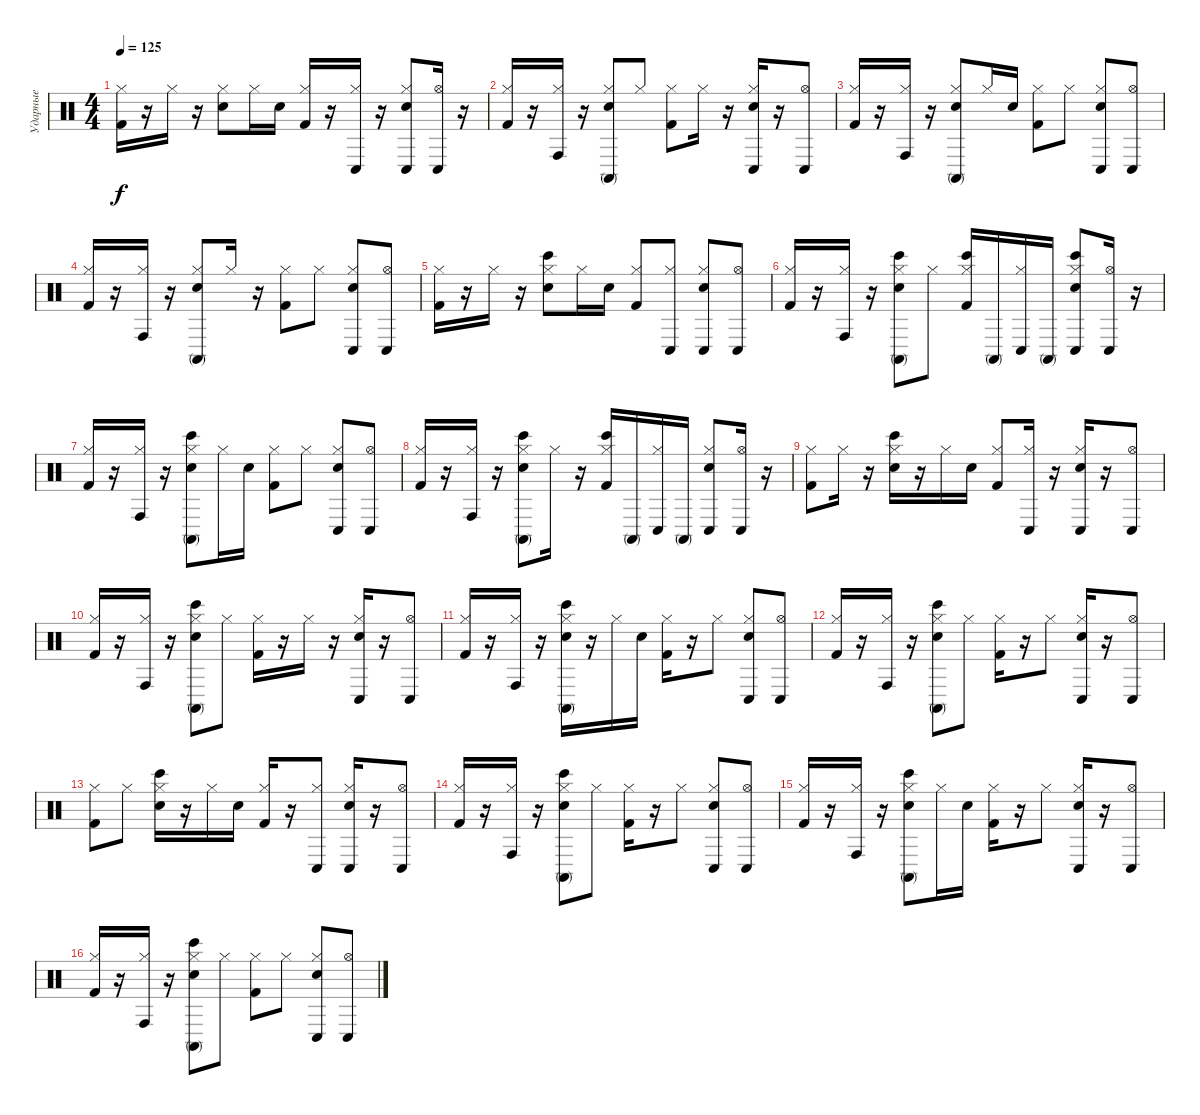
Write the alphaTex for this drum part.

\track ("Ударные" "Ударные") {instrument percussion}
\staff {score}
\articulation defaults
\ts (4 4)
\tempo 125
\clef neutral
\ks c
("Hi-Hat (closed)" "Kick (hit) 2").16{dy f} r.16 "Hi-Hat (closed)".16 r.16 ("Hi-Hat (closed)" "Electric Snare (hit)").8 "Hi-Hat (closed)".16 "Electric Snare (hit)".16 ("Hi-Hat (closed)" "Kick (hit) 2").16 r.16 ("Hi-Hat (closed)" "Conga low (hit)").16 r.16 ("Hi-Hat (closed)" "Conga low (hit)" "Electric Snare (hit)").8 ("Hi-Hat (open)" "Conga low (hit)").16 r.16 |
("Hi-Hat (closed)" "Kick (hit) 2").16 r.16 ("Hi-Hat (closed)" "Conga high (hit)").16 r.16 ("Hi-Hat (closed)" "Conga high (mute)" "Electric Snare (hit)").8 "Hi-Hat (closed)".8 ("Hi-Hat (closed)" "Kick (hit) 2").8 "Hi-Hat (closed)".16 r.16 ("Hi-Hat (closed)" "Conga low (hit)" "Electric Snare (hit)").16 r.16 ("Hi-Hat (open)" "Conga low (hit)").8 |
("Hi-Hat (closed)" "Kick (hit) 2").16 r.16 ("Hi-Hat (closed)" "Conga high (hit)").16 r.16 ("Hi-Hat (closed)" "Conga high (mute)" "Electric Snare (hit)").8 "Hi-Hat (closed)".16 "Electric Snare (hit)".16 ("Hi-Hat (closed)" "Kick (hit) 2").8 "Hi-Hat (closed)".8 ("Hi-Hat (closed)" "Conga low (hit)" "Electric Snare (hit)").8 ("Hi-Hat (open)" "Conga low (hit)").8 |
("Hi-Hat (closed)" "Kick (hit) 2").16 r.16 ("Hi-Hat (closed)" "Conga high (hit)").16 r.16 ("Hi-Hat (closed)" "Conga high (mute)" "Electric Snare (hit)").8 "Hi-Hat (closed)".16 r.16 ("Hi-Hat (closed)" "Kick (hit) 2").8 "Hi-Hat (closed)".8 ("Hi-Hat (closed)" "Conga low (hit)" "Electric Snare (hit)").8 ("Hi-Hat (open)" "Conga low (hit)").8 |
("Hi-Hat (closed)" "Kick (hit) 2").16 r.16 "Hi-Hat (closed)".16 r.16 ("Hi-Hat (closed)" "Bongo High (hit)" "Electric Snare (hit)").8 "Hi-Hat (closed)".16 "Electric Snare (hit)".16 ("Hi-Hat (closed)" "Kick (hit) 2").8 ("Hi-Hat (closed)" "Conga low (hit)").8 ("Hi-Hat (closed)" "Conga low (hit)" "Electric Snare (hit)").8 ("Hi-Hat (open)" "Conga low (hit)").8 |
("Hi-Hat (closed)" "Kick (hit) 2").16 r.16 ("Hi-Hat (closed)" "Conga high (hit)").16 r.16 ("Hi-Hat (closed)" "Bongo High (hit)" "Conga high (mute)" "Electric Snare (hit)").8 "Hi-Hat (closed)".8 ("Hi-Hat (closed)" "Bongo High (hit)" "Kick (hit) 2").16 "Conga high (mute)".16 ("Hi-Hat (closed)" "Conga low (hit)").16 "Conga high (mute)".16 ("Hi-Hat (closed)" "Bongo High (hit)" "Conga low (hit)" "Electric Snare (hit)").8 ("Hi-Hat (open)" "Conga low (hit)").16 r.16 |
("Hi-Hat (closed)" "Kick (hit) 2").16 r.16 ("Hi-Hat (closed)" "Conga high (hit)").16 r.16 ("Hi-Hat (closed)" "Bongo High (hit)" "Conga high (mute)" "Electric Snare (hit)").8 "Hi-Hat (closed)".16 "Electric Snare (hit)".16 ("Hi-Hat (closed)" "Kick (hit) 2").8 "Hi-Hat (closed)".8 ("Hi-Hat (closed)" "Conga low (hit)" "Electric Snare (hit)").8 ("Hi-Hat (open)" "Conga low (hit)").8 |
("Hi-Hat (closed)" "Kick (hit) 2").16 r.16 ("Hi-Hat (closed)" "Conga high (hit)").16 r.16 ("Hi-Hat (closed)" "Bongo High (hit)" "Conga high (mute)" "Electric Snare (hit)").8 "Hi-Hat (closed)".16 r.16 ("Hi-Hat (closed)" "Bongo High (hit)" "Kick (hit) 2").16 "Conga high (mute)".16 ("Hi-Hat (closed)" "Conga low (hit)").16 "Conga high (mute)".16 ("Hi-Hat (closed)" "Conga low (hit)" "Electric Snare (hit)").8 ("Hi-Hat (open)" "Conga low (hit)").16 r.16 |
("Hi-Hat (closed)" "Kick (hit) 2").8 "Hi-Hat (closed)".16 r.16 ("Hi-Hat (closed)" "Bongo High (hit)" "Electric Snare (hit)").16 r.16 "Hi-Hat (closed)".16 "Electric Snare (hit)".16 ("Hi-Hat (closed)" "Kick (hit) 2").8 ("Hi-Hat (closed)" "Conga low (hit)").16 r.16 ("Hi-Hat (closed)" "Conga low (hit)" "Electric Snare (hit)").16 r.16 ("Hi-Hat (open)" "Conga low (hit)").8 |
("Hi-Hat (closed)" "Kick (hit) 2").16 r.16 ("Hi-Hat (closed)" "Conga high (hit)").16 r.16 ("Hi-Hat (closed)" "Bongo High (hit)" "Conga high (mute)" "Electric Snare (hit)").8 "Hi-Hat (closed)".8 ("Hi-Hat (closed)" "Kick (hit) 2").16 r.16 "Hi-Hat (closed)".16 r.16 ("Hi-Hat (closed)" "Conga low (hit)" "Electric Snare (hit)").16 r.16 ("Hi-Hat (open)" "Conga low (hit)").8 |
("Hi-Hat (closed)" "Kick (hit) 2").16 r.16 ("Hi-Hat (closed)" "Conga high (hit)").16 r.16 ("Hi-Hat (closed)" "Bongo High (hit)" "Conga high (mute)" "Electric Snare (hit)").16 r.16 "Hi-Hat (closed)".16 "Electric Snare (hit)".16 ("Hi-Hat (closed)" "Kick (hit) 2").16 r.16 "Hi-Hat (closed)".8 ("Hi-Hat (closed)" "Conga low (hit)" "Electric Snare (hit)").8 ("Hi-Hat (open)" "Conga low (hit)").8 |
("Hi-Hat (closed)" "Kick (hit) 2").16 r.16 ("Hi-Hat (closed)" "Conga high (hit)").16 r.16 ("Hi-Hat (closed)" "Bongo High (hit)" "Conga high (mute)" "Electric Snare (hit)").8 "Hi-Hat (closed)".8 ("Hi-Hat (closed)" "Kick (hit) 2").16 r.16 "Hi-Hat (closed)".8 ("Hi-Hat (closed)" "Conga low (hit)" "Electric Snare (hit)").16 r.16 ("Hi-Hat (open)" "Conga low (hit)").8 |
("Hi-Hat (closed)" "Kick (hit) 2").8 "Hi-Hat (closed)".8 ("Hi-Hat (closed)" "Bongo High (hit)" "Electric Snare (hit)").16 r.16 "Hi-Hat (closed)".16 "Electric Snare (hit)".16 ("Hi-Hat (closed)" "Kick (hit) 2").16 r.16 ("Hi-Hat (closed)" "Conga low (hit)").8 ("Hi-Hat (closed)" "Conga low (hit)" "Electric Snare (hit)").16 r.16 ("Hi-Hat (open)" "Conga low (hit)").8 |
("Hi-Hat (closed)" "Kick (hit) 2").16 r.16 ("Hi-Hat (closed)" "Conga high (hit)").16 r.16 ("Hi-Hat (closed)" "Bongo High (hit)" "Conga high (mute)" "Electric Snare (hit)").8 "Hi-Hat (closed)".8 ("Hi-Hat (closed)" "Kick (hit) 2").16 r.16 "Hi-Hat (closed)".8 ("Hi-Hat (closed)" "Conga low (hit)" "Electric Snare (hit)").8 ("Hi-Hat (open)" "Conga low (hit)").8 |
("Hi-Hat (closed)" "Kick (hit) 2").16 r.16 ("Hi-Hat (closed)" "Conga high (hit)").16 r.16 ("Hi-Hat (closed)" "Bongo High (hit)" "Conga high (mute)" "Electric Snare (hit)").8 "Hi-Hat (closed)".16 "Electric Snare (hit)".16 ("Hi-Hat (closed)" "Kick (hit) 2").16 r.16 "Hi-Hat (closed)".8 ("Hi-Hat (closed)" "Conga low (hit)" "Electric Snare (hit)").16 r.16 ("Hi-Hat (open)" "Conga low (hit)").8 |
("Hi-Hat (closed)" "Kick (hit) 2").16 r.16 ("Hi-Hat (closed)" "Conga high (hit)").16 r.16 ("Hi-Hat (closed)" "Bongo High (hit)" "Conga high (mute)" "Electric Snare (hit)").8 "Hi-Hat (closed)".8 ("Hi-Hat (closed)" "Kick (hit) 2").8 "Hi-Hat (closed)".8 ("Hi-Hat (closed)" "Conga low (hit)" "Electric Snare (hit)").8 ("Hi-Hat (open)" "Conga low (hit)").8
